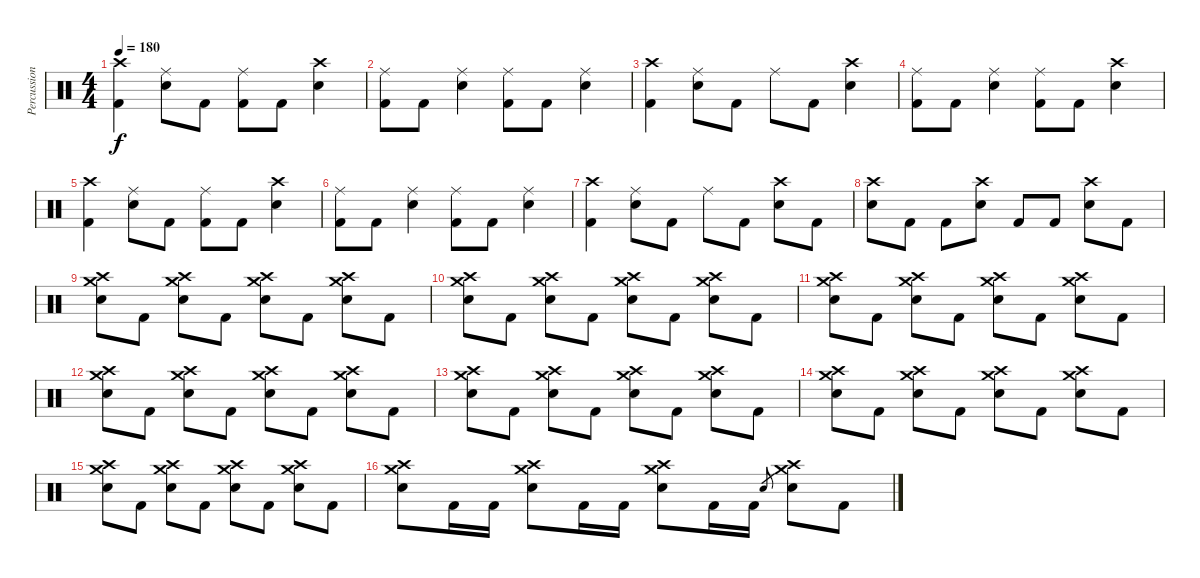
\track ("Percussion" "Percussion") {instrument percussion}
\staff {score}
\articulation defaults
\ts (4 4)
\tempo 180
\clef neutral
\ks c
("Crash high (hit)" "Kick (hit) 2").4{dy f} ("Ride (middle)" "Snare (hit) 2").8 "Kick (hit) 2".8 ("Ride (middle)" "Kick (hit) 2").8 "Kick (hit) 2".8 ("Crash high (hit)" "Snare (hit) 2").4 |
("Ride (middle)" "Kick (hit) 2").8 "Kick (hit) 2".8 ("Ride (middle)" "Snare (hit) 2").4 ("Ride (middle)" "Kick (hit) 2").8 "Kick (hit) 2".8 ("Ride (middle)" "Snare (hit) 2").4 |
("Crash high (hit)" "Kick (hit) 2").4 ("Ride (middle)" "Snare (hit) 2").8 "Kick (hit) 2".8 "Ride (middle)".8 "Kick (hit) 2".8 ("Crash high (hit)" "Snare (hit) 2").4 |
("Ride (middle)" "Kick (hit) 2").8 "Kick (hit) 2".8 ("Ride (middle)" "Snare (hit) 2").4 ("Ride (middle)" "Kick (hit) 2").8 "Kick (hit) 2".8 ("Crash high (hit)" "Snare (hit) 2").4 |
("Crash high (hit)" "Kick (hit) 2").4 ("Ride (middle)" "Snare (hit) 2").8 "Kick (hit) 2".8 ("Ride (middle)" "Kick (hit) 2").8 "Kick (hit) 2".8 ("Crash high (hit)" "Snare (hit) 2").4 |
("Ride (middle)" "Kick (hit) 2").8 "Kick (hit) 2".8 ("Ride (middle)" "Snare (hit) 2").4 ("Ride (middle)" "Kick (hit) 2").8 "Kick (hit) 2".8 ("Ride (middle)" "Snare (hit) 2").4 |
("Crash high (hit)" "Kick (hit) 2").4 ("Ride (middle)" "Snare (hit) 2").8 "Kick (hit) 2".8 "Ride (middle)".8 "Kick (hit) 2".8 ("Crash high (hit)" "Snare (hit) 2").8 "Kick (hit) 2".8 |
("Crash high (hit)" "Snare (hit) 2").8 "Kick (hit) 2".8 "Kick (hit) 2".8 ("Crash high (hit)" "Snare (hit) 2").8 "Kick (hit) 2".8 "Kick (hit) 2".8 ("Crash high (hit)" "Snare (hit) 2").8 "Kick (hit) 2".8 |
("Crash high (hit)" "Crash medium (hit)" "Snare (hit) 2").8 "Kick (hit) 2".8 ("Crash high (hit)" "Crash medium (hit)" "Snare (hit) 2").8 "Kick (hit) 2".8 ("Crash high (hit)" "Crash medium (hit)" "Snare (hit) 2").8 "Kick (hit) 2".8 ("Crash high (hit)" "Crash medium (hit)" "Snare (hit) 2").8 "Kick (hit) 2".8 |
("Crash high (hit)" "Crash medium (hit)" "Snare (hit) 2").8 "Kick (hit) 2".8 ("Crash high (hit)" "Crash medium (hit)" "Snare (hit) 2").8 "Kick (hit) 2".8 ("Crash high (hit)" "Crash medium (hit)" "Snare (hit) 2").8 "Kick (hit) 2".8 ("Crash high (hit)" "Crash medium (hit)" "Snare (hit) 2").8 "Kick (hit) 2".8 |
("Crash high (hit)" "Crash medium (hit)" "Snare (hit) 2").8 "Kick (hit) 2".8 ("Crash high (hit)" "Crash medium (hit)" "Snare (hit) 2").8 "Kick (hit) 2".8 ("Crash high (hit)" "Crash medium (hit)" "Snare (hit) 2").8 "Kick (hit) 2".8 ("Crash high (hit)" "Crash medium (hit)" "Snare (hit) 2").8 "Kick (hit) 2".8 |
("Crash high (hit)" "Crash medium (hit)" "Snare (hit) 2").8 "Kick (hit) 2".8 ("Crash high (hit)" "Crash medium (hit)" "Snare (hit) 2").8 "Kick (hit) 2".8 ("Crash high (hit)" "Crash medium (hit)" "Snare (hit) 2").8 "Kick (hit) 2".8 ("Crash high (hit)" "Crash medium (hit)" "Snare (hit) 2").8 "Kick (hit) 2".8 |
("Crash high (hit)" "Crash medium (hit)" "Snare (hit) 2").8 "Kick (hit) 2".8 ("Crash high (hit)" "Crash medium (hit)" "Snare (hit) 2").8 "Kick (hit) 2".8 ("Crash high (hit)" "Crash medium (hit)" "Snare (hit) 2").8 "Kick (hit) 2".8 ("Crash high (hit)" "Crash medium (hit)" "Snare (hit) 2").8 "Kick (hit) 2".8 |
("Crash high (hit)" "Crash medium (hit)" "Snare (hit) 2").8 "Kick (hit) 2".8 ("Crash high (hit)" "Crash medium (hit)" "Snare (hit) 2").8 "Kick (hit) 2".8 ("Crash high (hit)" "Crash medium (hit)" "Snare (hit) 2").8 "Kick (hit) 2".8 ("Crash high (hit)" "Crash medium (hit)" "Snare (hit) 2").8 "Kick (hit) 2".8 |
("Crash high (hit)" "Crash medium (hit)" "Snare (hit) 2").8 "Kick (hit) 2".8 ("Crash high (hit)" "Crash medium (hit)" "Snare (hit) 2").8 "Kick (hit) 2".8 ("Crash high (hit)" "Crash medium (hit)" "Snare (hit) 2").8 "Kick (hit) 2".8 ("Crash high (hit)" "Crash medium (hit)" "Snare (hit) 2").8 "Kick (hit) 2".8 |
("Crash high (hit)" "Crash medium (hit)" "Snare (hit) 2").8 "Kick (hit) 2".16 "Kick (hit) 2".16 ("Crash high (hit)" "Crash medium (hit)" "Snare (hit) 2").8 "Kick (hit) 2".16 "Kick (hit) 2".16 ("Crash high (hit)" "Crash medium (hit)" "Snare (hit) 2").8 "Kick (hit) 2".16 "Kick (hit) 2".16 "Snare (hit) 2".8{gr} ("Crash high (hit)" "Crash medium (hit)" "Snare (hit) 2").8 "Kick (hit) 2".8
